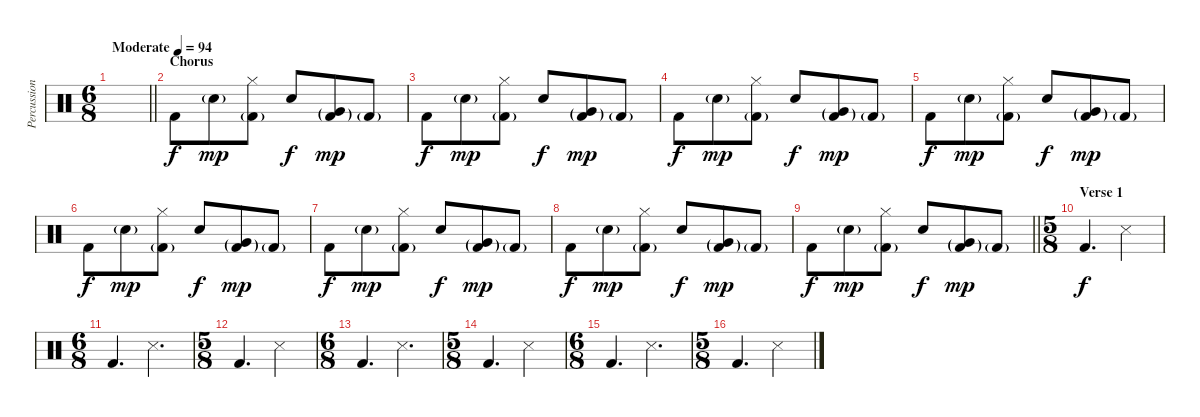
\track ("Percussion" "Percussion") {instrument percussion}
\staff {score}
\articulation defaults
\ts (6 8)
\tempo (94 "Moderate")
\clef neutral
\barLineRight lightlight
\ks c
|
\section ("" "Chorus")
"Kick (hit) 2".8 "Snare (hit) 2"{g}.8{dy mp} ("Hi-Hat (closed)" "Kick (hit) 2"{g}).8 "Snare (hit) 2".8{dy f} ("Very Low Tom (hit)"{g} "Kick (hit) 2"{g}).8{dy mp} "Kick (hit) 2"{g}.8 |
"Kick (hit) 2".8{dy f} "Snare (hit) 2"{g}.8{dy mp} ("Hi-Hat (closed)" "Kick (hit) 2"{g}).8 "Snare (hit) 2".8{dy f} ("Very Low Tom (hit)"{g} "Kick (hit) 2"{g}).8{dy mp} "Kick (hit) 2"{g}.8 |
"Kick (hit) 2".8{dy f} "Snare (hit) 2"{g}.8{dy mp} ("Hi-Hat (closed)" "Kick (hit) 2"{g}).8 "Snare (hit) 2".8{dy f} ("Very Low Tom (hit)"{g} "Kick (hit) 2"{g}).8{dy mp} "Kick (hit) 2"{g}.8 |
"Kick (hit) 2".8{dy f} "Snare (hit) 2"{g}.8{dy mp} ("Hi-Hat (closed)" "Kick (hit) 2"{g}).8 "Snare (hit) 2".8{dy f} ("Very Low Tom (hit)"{g} "Kick (hit) 2"{g}).8{dy mp} "Kick (hit) 2"{g}.8 |
"Kick (hit) 2".8{dy f} "Snare (hit) 2"{g}.8{dy mp} ("Hi-Hat (closed)" "Kick (hit) 2"{g}).8 "Snare (hit) 2".8{dy f} ("Very Low Tom (hit)"{g} "Kick (hit) 2"{g}).8{dy mp} "Kick (hit) 2"{g}.8 |
"Kick (hit) 2".8{dy f} "Snare (hit) 2"{g}.8{dy mp} ("Hi-Hat (closed)" "Kick (hit) 2"{g}).8 "Snare (hit) 2".8{dy f} ("Very Low Tom (hit)"{g} "Kick (hit) 2"{g}).8{dy mp} "Kick (hit) 2"{g}.8 |
"Kick (hit) 2".8{dy f} "Snare (hit) 2"{g}.8{dy mp} ("Hi-Hat (closed)" "Kick (hit) 2"{g}).8 "Snare (hit) 2".8{dy f} ("Very Low Tom (hit)"{g} "Kick (hit) 2"{g}).8{dy mp} "Kick (hit) 2"{g}.8 |
\barLineRight lightlight "Kick (hit) 2".8{dy f} "Snare (hit) 2"{g}.8{dy mp}
("Hi-Hat (closed)" "Kick (hit) 2"{g}).8 "Snare (hit) 2".8{dy f} ("Very Low Tom (hit)"{g} "Kick (hit) 2"{g}).8{dy mp} "Kick (hit) 2"{g}.8 |
\ts (5 8)
\section ("" "Verse 1")
"Kick (hit) 2".4{d dy f} "Snare (side stick) 3".4 |
\ts (6 8)
"Kick (hit) 2".4{d} "Snare (side stick) 3".4{d} |
\ts (5 8)
"Kick (hit) 2".4{d} "Snare (side stick) 3".4 |
\ts (6 8)
"Kick (hit) 2".4{d} "Snare (side stick) 3".4{d} |
\ts (5 8)
"Kick (hit) 2".4{d} "Snare (side stick) 3".4 |
\ts (6 8)
"Kick (hit) 2".4{d} "Snare (side stick) 3".4{d} |
\ts (5 8)
"Kick (hit) 2".4{d} "Snare (side stick) 3".4
